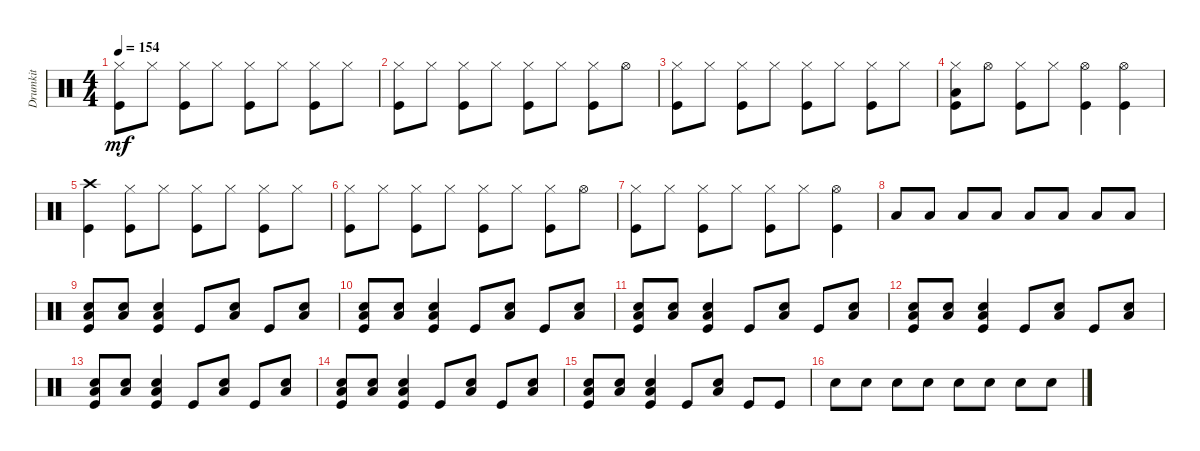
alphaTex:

\track ("Drumkit" "Drumkit") {instrument percussion}
\staff {score}
\articulation defaults
\ts (4 4)
\tempo 154
\clef neutral
\ks c
("Kick (hit)" "Hi-Hat (closed)").8{dy mf} "Hi-Hat (closed)".8 ("Kick (hit)" "Hi-Hat (closed)").8 "Hi-Hat (closed)".8 ("Kick (hit)" "Hi-Hat (closed)").8 "Hi-Hat (closed)".8 ("Kick (hit)" "Hi-Hat (closed)").8 "Hi-Hat (closed)".8 |
("Kick (hit)" "Hi-Hat (closed)").8 "Hi-Hat (closed)".8 ("Kick (hit)" "Hi-Hat (closed)").8 "Hi-Hat (closed)".8 ("Kick (hit)" "Hi-Hat (closed)").8 "Hi-Hat (closed)".8 ("Kick (hit)" "Hi-Hat (closed)").8 "Hi-Hat (open)".8 |
("Kick (hit)" "Hi-Hat (closed)").8 "Hi-Hat (closed)".8 ("Kick (hit)" "Hi-Hat (closed)").8 "Hi-Hat (closed)".8 ("Kick (hit)" "Hi-Hat (closed)").8 "Hi-Hat (closed)".8 ("Kick (hit)" "Hi-Hat (closed)").8 "Hi-Hat (closed)".8 |
("Kick (hit)" "Hi-Hat (closed)" "Low Tom (hit)").8 "Hi-Hat (open)".8 ("Kick (hit)" "Hi-Hat (closed)").8 "Hi-Hat (closed)".8 ("Kick (hit)" "Hi-Hat (open)").4 ("Kick (hit)" "Hi-Hat (open)").4 |
("Kick (hit)" "Crash high (hit)").4 ("Kick (hit)" "Hi-Hat (closed)").8 "Hi-Hat (closed)".8 ("Kick (hit)" "Hi-Hat (closed)").8 "Hi-Hat (closed)".8 ("Kick (hit)" "Hi-Hat (closed)").8 "Hi-Hat (closed)".8 |
("Kick (hit)" "Hi-Hat (closed)").8 "Hi-Hat (closed)".8 ("Kick (hit)" "Hi-Hat (closed)").8 "Hi-Hat (closed)".8 ("Kick (hit)" "Hi-Hat (closed)").8 "Hi-Hat (closed)".8 ("Kick (hit)" "Hi-Hat (closed)").8 "Hi-Hat (open)".8 |
("Kick (hit)" "Hi-Hat (closed)").8 "Hi-Hat (closed)".8 ("Kick (hit)" "Hi-Hat (closed)").8 "Hi-Hat (closed)".8 ("Kick (hit)" "Hi-Hat (closed)").8 "Hi-Hat (closed)".8 ("Kick (hit)" "Hi-Hat (open)").4 |
"Low Tom (hit)".8 "Low Tom (hit)".8 "Low Tom (hit)".8 "Low Tom (hit)".8 "Low Tom (hit)".8 "Low Tom (hit)".8 "Low Tom (hit)".8 "Low Tom (hit)".8 |
("Snare (hit) 2" "Kick (hit)" "Low Tom (hit)").8 ("Snare (hit) 2" "Low Tom (hit)").8 ("Snare (hit) 2" "Kick (hit)" "Low Tom (hit)").4 "Kick (hit)".8 ("Snare (hit) 2" "Low Tom (hit)").8 "Kick (hit)".8 ("Snare (hit) 2" "Low Tom (hit)").8 |
("Kick (hit)" "Snare (hit) 2" "Low Tom (hit)").8 ("Snare (hit) 2" "Low Tom (hit)").8 ("Snare (hit) 2" "Kick (hit)" "Low Tom (hit)").4 "Kick (hit)".8 ("Snare (hit) 2" "Low Tom (hit)").8 "Kick (hit)".8 ("Snare (hit) 2" "Low Tom (hit)").8 |
("Snare (hit) 2" "Kick (hit)" "Low Tom (hit)").8 ("Snare (hit) 2" "Low Tom (hit)").8 ("Snare (hit) 2" "Kick (hit)" "Low Tom (hit)").4 "Kick (hit)".8 ("Snare (hit) 2" "Low Tom (hit)").8 "Kick (hit)".8 ("Snare (hit) 2" "Low Tom (hit)").8 |
("Kick (hit)" "Snare (hit) 2" "Low Tom (hit)").8 ("Snare (hit) 2" "Low Tom (hit)").8 ("Snare (hit) 2" "Kick (hit)" "Low Tom (hit)").4 "Kick (hit)".8 ("Snare (hit) 2" "Low Tom (hit)").8 "Kick (hit)".8 ("Snare (hit) 2" "Low Tom (hit)").8 |
("Snare (hit) 2" "Kick (hit)" "Low Tom (hit)").8 ("Snare (hit) 2" "Low Tom (hit)").8 ("Snare (hit) 2" "Kick (hit)" "Low Tom (hit)").4 "Kick (hit)".8 ("Snare (hit) 2" "Low Tom (hit)").8 "Kick (hit)".8 ("Snare (hit) 2" "Low Tom (hit)").8 |
("Kick (hit)" "Snare (hit) 2" "Low Tom (hit)").8 ("Snare (hit) 2" "Low Tom (hit)").8 ("Snare (hit) 2" "Kick (hit)" "Low Tom (hit)").4 "Kick (hit)".8 ("Snare (hit) 2" "Low Tom (hit)").8 "Kick (hit)".8 ("Snare (hit) 2" "Low Tom (hit)").8 |
("Kick (hit)" "Snare (hit) 2" "Low Tom (hit)").8 ("Snare (hit) 2" "Low Tom (hit)").8 ("Snare (hit) 2" "Kick (hit)" "Low Tom (hit)").4 "Kick (hit)".8 ("Snare (hit) 2" "Low Tom (hit)").8 "Kick (hit)".8 "Kick (hit)".8 |
"Snare (hit) 2".8 "Snare (hit) 2".8 "Snare (hit) 2".8 "Snare (hit) 2".8 "Snare (hit) 2".8 "Snare (hit) 2".8 "Snare (hit) 2".8 "Snare (hit) 2".8
